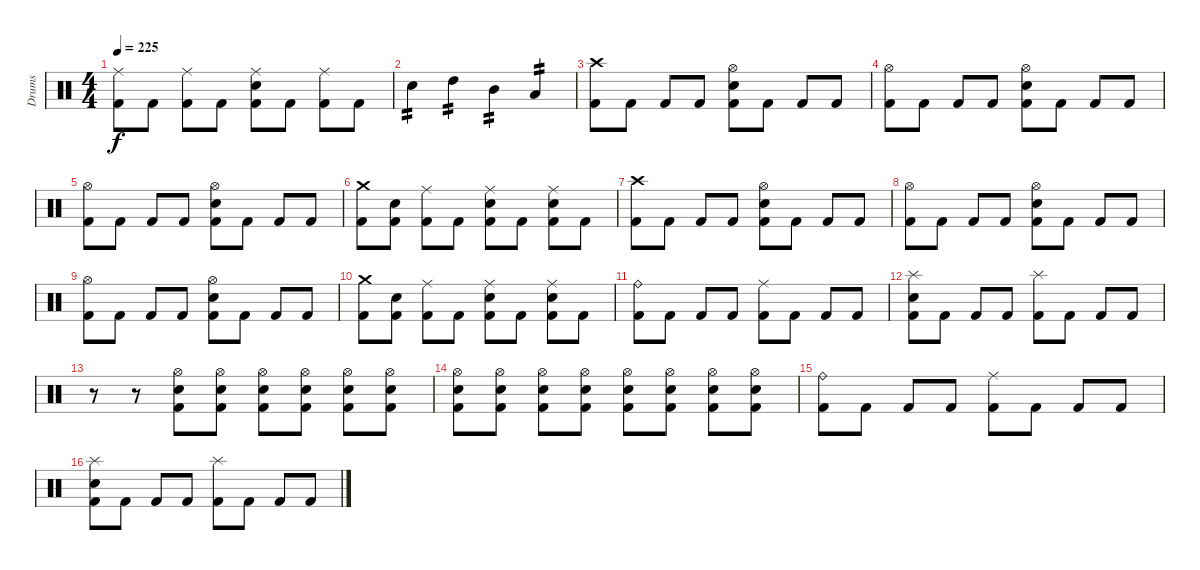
\track ("Drums" "Drums") {instrument percussion}
\staff {score}
\articulation defaults
\ts (4 4)
\tempo 225
\clef neutral
\ks c
("Ride (middle)" "Kick (hit) 2").8{dy f} "Kick (hit) 2".8 ("Ride (middle)" "Kick (hit) 2").8 "Kick (hit) 2".8 ("Ride (middle)" "Electric Snare (hit)" "Kick (hit) 2").8 "Kick (hit) 2".8 ("Ride (middle)" "Kick (hit) 2").8 "Kick (hit) 2".8 |
"Electric Snare (hit)".4{tp 2} "High Tom (hit)".4{tp 2} "Mid Tom (hit)".4{tp 2} "Low Tom (hit)".4{tp 2} |
("Crash high (hit)" "Kick (hit) 2").8 "Kick (hit) 2".8 "Kick (hit) 2".8 "Kick (hit) 2".8 ("Hi-Hat (open)" "Electric Snare (hit)" "Kick (hit) 2").8 "Kick (hit) 2".8 "Kick (hit) 2".8 "Kick (hit) 2".8 |
("Hi-Hat (open)" "Kick (hit) 2").8 "Kick (hit) 2".8 "Kick (hit) 2".8 "Kick (hit) 2".8 ("Hi-Hat (open)" "Electric Snare (hit)" "Kick (hit) 2").8 "Kick (hit) 2".8 "Kick (hit) 2".8 "Kick (hit) 2".8 |
("Hi-Hat (open)" "Kick (hit) 2").8 "Kick (hit) 2".8 "Kick (hit) 2".8 "Kick (hit) 2".8 ("Hi-Hat (open)" "Electric Snare (hit)" "Kick (hit) 2").8 "Kick (hit) 2".8 "Kick (hit) 2".8 "Kick (hit) 2".8 |
("Crash medium (hit)" "Kick (hit) 2").8 ("Electric Snare (hit)" "Kick (hit) 2").8 ("Ride (middle)" "Kick (hit) 2").8 "Kick (hit) 2".8 ("Ride (middle)" "Electric Snare (hit)" "Kick (hit) 2").8 "Kick (hit) 2".8 ("Ride (middle)" "Electric Snare (hit)" "Kick (hit) 2").8 "Kick (hit) 2".8 |
("Crash high (hit)" "Kick (hit) 2").8 "Kick (hit) 2".8 "Kick (hit) 2".8 "Kick (hit) 2".8 ("Hi-Hat (open)" "Electric Snare (hit)" "Kick (hit) 2").8 "Kick (hit) 2".8 "Kick (hit) 2".8 "Kick (hit) 2".8 |
("Hi-Hat (open)" "Kick (hit) 2").8 "Kick (hit) 2".8 "Kick (hit) 2".8 "Kick (hit) 2".8 ("Hi-Hat (open)" "Electric Snare (hit)" "Kick (hit) 2").8 "Kick (hit) 2".8 "Kick (hit) 2".8 "Kick (hit) 2".8 |
("Hi-Hat (open)" "Kick (hit) 2").8 "Kick (hit) 2".8 "Kick (hit) 2".8 "Kick (hit) 2".8 ("Hi-Hat (open)" "Electric Snare (hit)" "Kick (hit) 2").8 "Kick (hit) 2".8 "Kick (hit) 2".8 "Kick (hit) 2".8 |
("Crash medium (hit)" "Kick (hit) 2").8 ("Electric Snare (hit)" "Kick (hit) 2").8 ("Ride (middle)" "Kick (hit) 2").8 "Kick (hit) 2".8 ("Ride (middle)" "Electric Snare (hit)" "Kick (hit) 2").8 "Kick (hit) 2".8 ("Ride (middle)" "Electric Snare (hit)" "Kick (hit) 2").8 "Kick (hit) 2".8 |
("Ride (bell)" "Kick (hit) 2").8 "Kick (hit) 2".8 "Kick (hit) 2".8 "Kick (hit) 2".8 ("Ride (middle)" "Kick (hit) 2").8 "Kick (hit) 2".8 "Kick (hit) 2".8 "Kick (hit) 2".8 |
("Splash (hit)" "Electric Snare (hit)" "Kick (hit) 2").8 "Kick (hit) 2".8 "Kick (hit) 2".8 "Kick (hit) 2".8 ("Splash (hit)" "Kick (hit) 2").8 "Kick (hit) 2".8 "Kick (hit) 2".8 "Kick (hit) 2".8 |
r.8 r.8 ("Hi-Hat (open)" "Electric Snare (hit)" "Kick (hit) 2").8 ("Hi-Hat (open)" "Electric Snare (hit)" "Kick (hit) 2").8 ("Hi-Hat (open)" "Electric Snare (hit)" "Kick (hit) 2").8 ("Hi-Hat (open)" "Electric Snare (hit)" "Kick (hit) 2").8 ("Hi-Hat (open)" "Electric Snare (hit)" "Kick (hit) 2").8 ("Hi-Hat (open)" "Electric Snare (hit)" "Kick (hit) 2").8 |
("Hi-Hat (open)" "Electric Snare (hit)" "Kick (hit) 2").8 ("Hi-Hat (open)" "Electric Snare (hit)" "Kick (hit) 2").8 ("Hi-Hat (open)" "Electric Snare (hit)" "Kick (hit) 2").8 ("Hi-Hat (open)" "Electric Snare (hit)" "Kick (hit) 2").8 ("Hi-Hat (open)" "Electric Snare (hit)" "Kick (hit) 2").8 ("Hi-Hat (open)" "Electric Snare (hit)" "Kick (hit) 2").8 ("Hi-Hat (open)" "Electric Snare (hit)" "Kick (hit) 2").8 ("Hi-Hat (open)" "Electric Snare (hit)" "Kick (hit) 2").8 |
("Ride (bell)" "Kick (hit) 2").8 "Kick (hit) 2".8 "Kick (hit) 2".8 "Kick (hit) 2".8 ("Ride (middle)" "Kick (hit) 2").8 "Kick (hit) 2".8 "Kick (hit) 2".8 "Kick (hit) 2".8 |
("Splash (hit)" "Electric Snare (hit)" "Kick (hit) 2").8 "Kick (hit) 2".8 "Kick (hit) 2".8 "Kick (hit) 2".8 ("Splash (hit)" "Kick (hit) 2").8 "Kick (hit) 2".8 "Kick (hit) 2".8 "Kick (hit) 2".8
